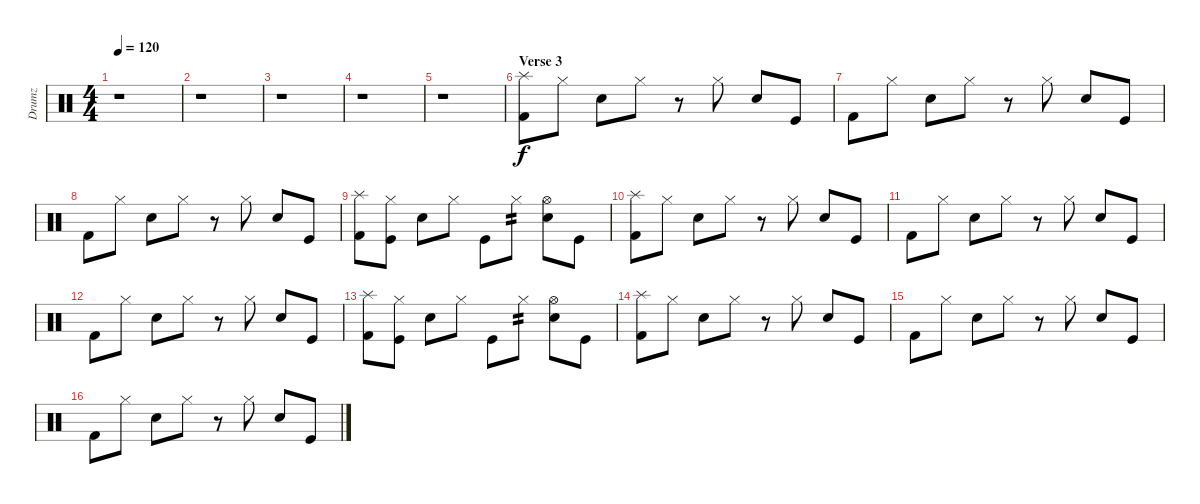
\track ("Drumz" "Drumz") {instrument percussion}
\staff {score}
\articulation defaults
\ts (4 4)
\tempo 120
\clef neutral
\ks c
r.1{dy mp} |
r.1 |
r.1 |
r.1 |
r.1 |
\section ("" "Verse 3")
("Splash (hit)" "Kick (hit) 2").8{dy f} "Hi-Hat (closed)".8 "Electric Snare (hit)".8 "Hi-Hat (closed)".8 r.8 "Hi-Hat (closed)".8 "Electric Snare (hit)".8 "Kick (hit)".8 |
"Kick (hit) 2".8 "Hi-Hat (closed)".8 "Electric Snare (hit)".8 "Hi-Hat (closed)".8 r.8 "Hi-Hat (closed)".8 "Electric Snare (hit)".8 "Kick (hit)".8 |
"Kick (hit) 2".8 "Hi-Hat (closed)".8 "Electric Snare (hit)".8 "Hi-Hat (closed)".8 r.8 "Hi-Hat (closed)".8 "Electric Snare (hit)".8 "Kick (hit)".8 |
("Splash (hit)" "Kick (hit) 2").8 ("Hi-Hat (closed)" "Kick (hit)").8 "Electric Snare (hit)".8 "Hi-Hat (closed)".8 "Kick (hit)".8 "Hi-Hat (closed)".8{tp 2} ("Hi-Hat (open)" "Electric Snare (hit)").8 "Kick (hit)".8 |
("Splash (hit)" "Kick (hit) 2").8 "Hi-Hat (closed)".8 "Electric Snare (hit)".8 "Hi-Hat (closed)".8 r.8 "Hi-Hat (closed)".8 "Electric Snare (hit)".8 "Kick (hit)".8 |
"Kick (hit) 2".8 "Hi-Hat (closed)".8 "Electric Snare (hit)".8 "Hi-Hat (closed)".8 r.8 "Hi-Hat (closed)".8 "Electric Snare (hit)".8 "Kick (hit)".8 |
"Kick (hit) 2".8 "Hi-Hat (closed)".8 "Electric Snare (hit)".8 "Hi-Hat (closed)".8 r.8 "Hi-Hat (closed)".8 "Electric Snare (hit)".8 "Kick (hit)".8 |
("Splash (hit)" "Kick (hit) 2").8 ("Hi-Hat (closed)" "Kick (hit)").8 "Electric Snare (hit)".8 "Hi-Hat (closed)".8 "Kick (hit)".8 "Hi-Hat (closed)".8{tp 2} ("Hi-Hat (open)" "Electric Snare (hit)").8 "Kick (hit)".8 |
("Splash (hit)" "Kick (hit) 2").8 "Hi-Hat (closed)".8 "Electric Snare (hit)".8 "Hi-Hat (closed)".8 r.8 "Hi-Hat (closed)".8 "Electric Snare (hit)".8 "Kick (hit)".8 |
"Kick (hit) 2".8 "Hi-Hat (closed)".8 "Electric Snare (hit)".8 "Hi-Hat (closed)".8 r.8 "Hi-Hat (closed)".8 "Electric Snare (hit)".8 "Kick (hit)".8 |
"Kick (hit) 2".8 "Hi-Hat (closed)".8 "Electric Snare (hit)".8 "Hi-Hat (closed)".8 r.8 "Hi-Hat (closed)".8 "Electric Snare (hit)".8 "Kick (hit)".8
